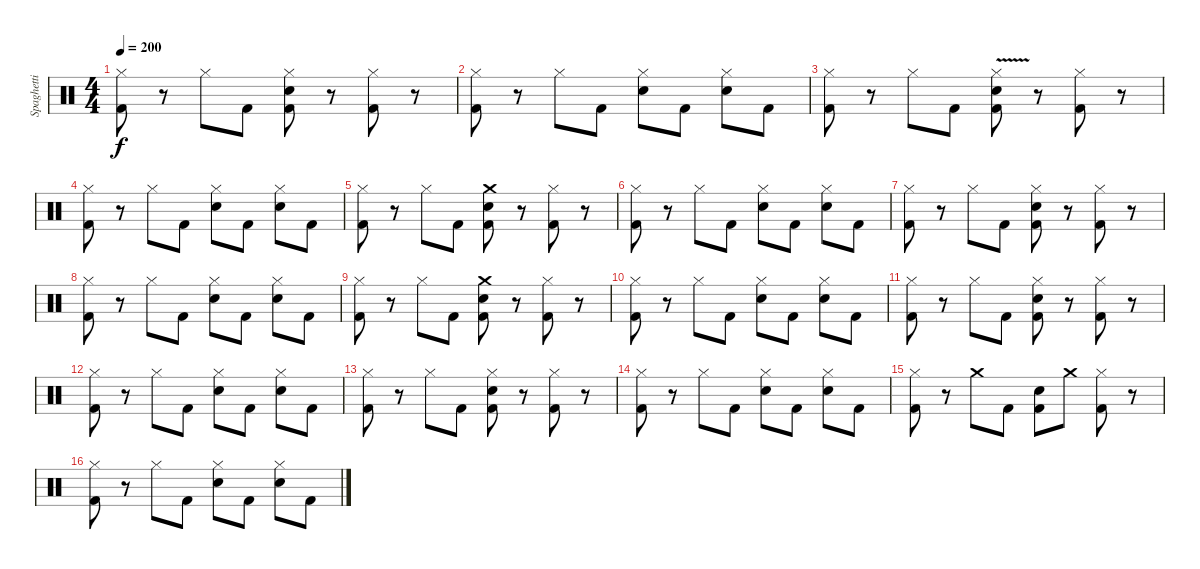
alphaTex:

\track ("Spaghetti" "Spaghetti") {instrument percussion}
\staff {score}
\articulation defaults
\ts (4 4)
\tempo 200
\clef neutral
\ks c
("Hi-Hat (closed)" "Kick (hit) 2").8{dy f} r.8 "Hi-Hat (closed)".8 "Kick (hit) 2".8 ("Hi-Hat (closed)" "Snare (hit) 2" "Kick (hit) 2").8 r.8 ("Hi-Hat (closed)" "Kick (hit) 2").8 r.8 |
("Hi-Hat (closed)" "Kick (hit) 2").8 r.8 "Hi-Hat (closed)".8 "Kick (hit) 2".8 ("Hi-Hat (closed)" "Snare (hit) 2").8 "Kick (hit) 2".8 ("Hi-Hat (closed)" "Snare (hit) 2").8 "Kick (hit) 2".8 |
("Hi-Hat (closed)" "Kick (hit) 2").8 r.8 "Hi-Hat (closed)".8 "Kick (hit) 2".8 ("Hi-Hat (closed)"{v} "Snare (hit) 2" "Kick (hit) 2").8 r.8 ("Hi-Hat (closed)" "Kick (hit) 2").8 r.8 |
("Hi-Hat (closed)" "Kick (hit) 2").8 r.8 "Hi-Hat (closed)".8 "Kick (hit) 2".8 ("Hi-Hat (closed)" "Snare (hit) 2").8 "Kick (hit) 2".8 ("Hi-Hat (closed)" "Snare (hit) 2").8 "Kick (hit) 2".8 |
("Hi-Hat (closed)" "Kick (hit) 2").8 r.8 "Hi-Hat (closed)".8 "Kick (hit) 2".8 ("Crash medium (hit)" "Snare (hit) 2" "Kick (hit) 2").8 r.8 ("Hi-Hat (closed)" "Kick (hit) 2").8 r.8 |
("Hi-Hat (closed)" "Kick (hit) 2").8 r.8 "Hi-Hat (closed)".8 "Kick (hit) 2".8 ("Hi-Hat (closed)" "Snare (hit) 2").8 "Kick (hit) 2".8 ("Hi-Hat (closed)" "Snare (hit) 2").8 "Kick (hit) 2".8 |
("Hi-Hat (closed)" "Kick (hit) 2").8 r.8 "Hi-Hat (closed)".8 "Kick (hit) 2".8 ("Hi-Hat (closed)" "Snare (hit) 2" "Kick (hit) 2").8 r.8 ("Hi-Hat (closed)" "Kick (hit) 2").8 r.8 |
("Hi-Hat (closed)" "Kick (hit) 2").8 r.8 "Hi-Hat (closed)".8 "Kick (hit) 2".8 ("Hi-Hat (closed)" "Snare (hit) 2").8 "Kick (hit) 2".8 ("Hi-Hat (closed)" "Snare (hit) 2").8 "Kick (hit) 2".8 |
("Hi-Hat (closed)" "Kick (hit) 2").8 r.8 "Hi-Hat (closed)".8 "Kick (hit) 2".8 ("Crash medium (hit)" "Snare (hit) 2" "Kick (hit) 2").8 r.8 ("Hi-Hat (closed)" "Kick (hit) 2").8 r.8 |
("Hi-Hat (closed)" "Kick (hit) 2").8 r.8 "Hi-Hat (closed)".8 "Kick (hit) 2".8 ("Hi-Hat (closed)" "Snare (hit) 2").8 "Kick (hit) 2".8 ("Hi-Hat (closed)" "Snare (hit) 2").8 "Kick (hit) 2".8 |
("Hi-Hat (closed)" "Kick (hit) 2").8 r.8 "Hi-Hat (closed)".8 "Kick (hit) 2".8 ("Hi-Hat (closed)" "Snare (hit) 2" "Kick (hit) 2").8 r.8 ("Hi-Hat (closed)" "Kick (hit) 2").8 r.8 |
("Hi-Hat (closed)" "Kick (hit) 2").8 r.8 "Hi-Hat (closed)".8 "Kick (hit) 2".8 ("Hi-Hat (closed)" "Snare (hit) 2").8 "Kick (hit) 2".8 ("Hi-Hat (closed)" "Snare (hit) 2").8 "Kick (hit) 2".8 |
("Hi-Hat (closed)" "Kick (hit) 2").8 r.8 "Hi-Hat (closed)".8 "Kick (hit) 2".8 ("Hi-Hat (closed)" "Snare (hit) 2" "Kick (hit) 2").8 r.8 ("Hi-Hat (closed)" "Kick (hit) 2").8 r.8 |
("Hi-Hat (closed)" "Kick (hit) 2").8 r.8 "Hi-Hat (closed)".8 "Kick (hit) 2".8 ("Hi-Hat (closed)" "Snare (hit) 2").8 "Kick (hit) 2".8 ("Hi-Hat (closed)" "Snare (hit) 2").8 "Kick (hit) 2".8 |
("Hi-Hat (closed)" "Kick (hit) 2").8 r.8 "Crash medium (hit)".8 "Kick (hit) 2".8 ("Snare (hit) 2" "Kick (hit) 2").8 "Crash medium (hit)".8 ("Hi-Hat (closed)" "Kick (hit) 2").8 r.8 |
("Hi-Hat (closed)" "Kick (hit) 2").8 r.8 "Hi-Hat (closed)".8 "Kick (hit) 2".8 ("Hi-Hat (closed)" "Snare (hit) 2").8 "Kick (hit) 2".8 ("Hi-Hat (closed)" "Snare (hit) 2").8 "Kick (hit) 2".8
